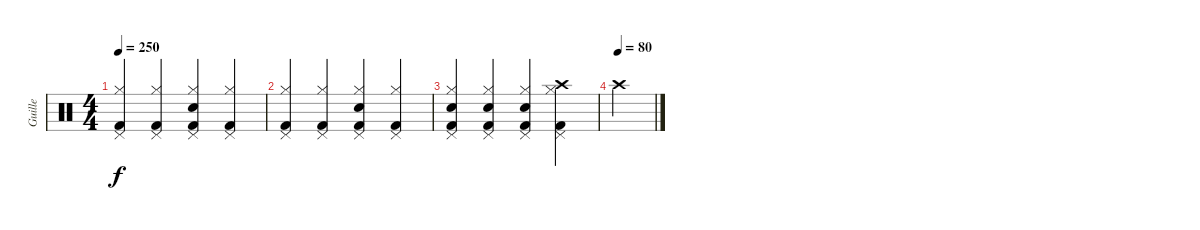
\track ("Guille" "Guille") {instrument percussion}
\staff
\articulation defaults
\ts (4 4)
\tempo 250
\clef neutral
\ks c
("Kick (hit) 2" "Hi-Hat (closed)" "Pedal Hi-Hat (hit)").4{dy f} ("Kick (hit) 2" "Hi-Hat (closed)" "Pedal Hi-Hat (hit)").4 ("Kick (hit) 2" "Electric Snare (hit)" "Hi-Hat (closed)" "Pedal Hi-Hat (hit)").4 ("Kick (hit) 2" "Hi-Hat (closed)" "Pedal Hi-Hat (hit)").4 |
("Kick (hit) 2" "Hi-Hat (closed)" "Pedal Hi-Hat (hit)").4 ("Kick (hit) 2" "Hi-Hat (closed)" "Pedal Hi-Hat (hit)").4 ("Kick (hit) 2" "Electric Snare (hit)" "Hi-Hat (closed)" "Pedal Hi-Hat (hit)").4 ("Kick (hit) 2" "Hi-Hat (closed)" "Pedal Hi-Hat (hit)").4 |
("Kick (hit) 2" "Electric Snare (hit)" "Hi-Hat (closed)" "Pedal Hi-Hat (hit)").4 ("Kick (hit) 2" "Electric Snare (hit)" "Hi-Hat (closed)" "Pedal Hi-Hat (hit)").4 ("Kick (hit) 2" "Electric Snare (hit)" "Hi-Hat (closed)" "Pedal Hi-Hat (hit)").4 ("Kick (hit) 2" "Hi-Hat (closed)" "Pedal Hi-Hat (hit)" "Crash high (hit)").4 |
\tempo (80)
"Crash high (hit)".4
